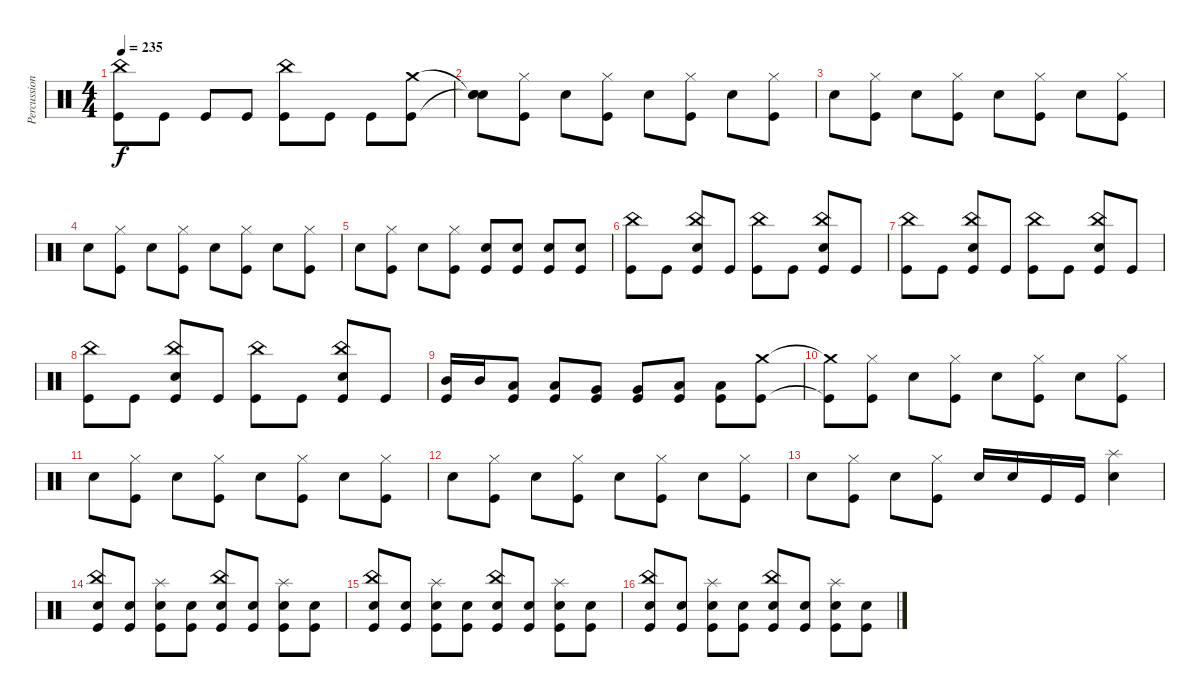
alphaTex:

\track ("Percussion" "Percussion") {instrument percussion}
\staff {score}
\articulation defaults
\ts (4 4)
\tempo 235
\clef neutral
\ks c
("Kick (hit)" "China (hit)").8{dy f} "Kick (hit)".8 "Kick (hit)".8 "Kick (hit)".8 ("Kick (hit)" "China (hit)").8 "Kick (hit)".8 "Kick (hit)".8 ("Kick (hit)" "Crash medium (hit)").8 |
("Snare (hit)"{t} "Snare (hit)"{t} "Snare (hit)").8 ("Kick (hit)" "Hi-Hat (closed)").8 "Snare (hit) 2".8 ("Kick (hit)" "Hi-Hat (closed)").8 "Snare (hit) 2".8 ("Kick (hit)" "Hi-Hat (closed)").8 "Snare (hit) 2".8 ("Kick (hit)" "Hi-Hat (closed)").8 |
"Snare (hit) 2".8 ("Kick (hit)" "Hi-Hat (closed)").8 "Snare (hit) 2".8 ("Kick (hit)" "Hi-Hat (closed)").8 "Snare (hit) 2".8 ("Kick (hit)" "Hi-Hat (closed)").8 "Snare (hit) 2".8 ("Kick (hit)" "Hi-Hat (closed)").8 |
"Snare (hit) 2".8 ("Kick (hit)" "Hi-Hat (closed)").8 "Snare (hit) 2".8 ("Kick (hit)" "Hi-Hat (closed)").8 "Snare (hit) 2".8 ("Kick (hit)" "Hi-Hat (closed)").8 "Snare (hit) 2".8 ("Kick (hit)" "Hi-Hat (closed)").8 |
"Snare (hit) 2".8 ("Kick (hit)" "Hi-Hat (closed)").8 "Snare (hit) 2".8 ("Kick (hit)" "Hi-Hat (closed)").8 ("Kick (hit)" "Snare (hit) 2").8 ("Kick (hit)" "Snare (hit) 2").8 ("Kick (hit)" "Snare (hit) 2").8 ("Kick (hit)" "Snare (hit) 2").8 |
("Kick (hit)" "China (hit)").8 "Kick (hit)".8 ("Kick (hit)" "Snare (hit) 2" "China (hit)").8 "Kick (hit)".8 ("Kick (hit)" "China (hit)").8 "Kick (hit)".8 ("Kick (hit)" "Snare (hit) 2" "China (hit)").8 "Kick (hit)".8 |
("Kick (hit)" "China (hit)").8 "Kick (hit)".8 ("Kick (hit)" "Snare (hit) 2" "China (hit)").8 "Kick (hit)".8 ("Kick (hit)" "China (hit)").8 "Kick (hit)".8 ("Kick (hit)" "Snare (hit) 2" "China (hit)").8 "Kick (hit)".8 |
("Kick (hit)" "China (hit)").8 "Kick (hit)".8 ("Kick (hit)" "Snare (hit) 2" "China (hit)").8 "Kick (hit)".8 ("Kick (hit)" "China (hit)").8 "Kick (hit)".8 ("Kick (hit)" "Snare (hit) 2" "China (hit)").8 "Kick (hit)".8 |
("Mid Tom (hit)" "Kick (hit)").16 "Mid Tom (hit)".16 ("Low Tom (hit)" "Kick (hit)").8 ("Low Tom (hit)" "Kick (hit)").8 ("Very Low Tom (hit)" "Kick (hit)").8 ("Very Low Tom (hit)" "Kick (hit)").8 ("Low Floor Tom (hit)" "Kick (hit)").8 ("Low Floor Tom (hit)" "Kick (hit)").8 ("Crash medium (hit)" "Kick (hit)").8 |
("Crash medium (hit)"{t} "Kick (hit)"{t}).8 ("Kick (hit)" "Hi-Hat (closed)").8 "Snare (hit) 2".8 ("Kick (hit)" "Hi-Hat (closed)").8 "Snare (hit) 2".8 ("Kick (hit)" "Hi-Hat (closed)").8 "Snare (hit) 2".8 ("Kick (hit)" "Hi-Hat (closed)").8 |
"Snare (hit) 2".8 ("Kick (hit)" "Hi-Hat (closed)").8 "Snare (hit) 2".8 ("Kick (hit)" "Hi-Hat (closed)").8 "Snare (hit) 2".8 ("Kick (hit)" "Hi-Hat (closed)").8 "Snare (hit) 2".8 ("Kick (hit)" "Hi-Hat (closed)").8 |
"Snare (hit) 2".8 ("Kick (hit)" "Hi-Hat (closed)").8 "Snare (hit) 2".8 ("Kick (hit)" "Hi-Hat (closed)").8 "Snare (hit) 2".8 ("Kick (hit)" "Hi-Hat (closed)").8 "Snare (hit) 2".8 ("Kick (hit)" "Hi-Hat (closed)").8 |
"Snare (hit) 2".8 ("Kick (hit)" "Hi-Hat (closed)").8 "Snare (hit) 2".8 ("Kick (hit)" "Hi-Hat (closed)").8 "Snare (hit) 2".16 "Snare (hit) 2".16 "Kick (hit)".16 "Kick (hit)".16 ("Snare (hit) 2" "Splash (hit)").4 |
("Kick (hit)" "Snare (hit) 2" "China (hit)").8 ("Kick (hit)" "Snare (hit) 2").8 ("Kick (hit)" "Snare (hit) 2" "Splash (hit)").8 ("Kick (hit)" "Snare (hit) 2").8 ("Kick (hit)" "Snare (hit) 2" "China (hit)").8 ("Kick (hit)" "Snare (hit) 2").8 ("Kick (hit)" "Snare (hit) 2" "Splash (hit)").8 ("Kick (hit)" "Snare (hit) 2").8 |
("Kick (hit)" "Snare (hit) 2" "China (hit)").8 ("Kick (hit)" "Snare (hit) 2").8 ("Kick (hit)" "Snare (hit) 2" "Splash (hit)").8 ("Kick (hit)" "Snare (hit) 2").8 ("Kick (hit)" "Snare (hit) 2" "China (hit)").8 ("Kick (hit)" "Snare (hit) 2").8 ("Kick (hit)" "Snare (hit) 2" "Splash (hit)").8 ("Kick (hit)" "Snare (hit) 2").8 |
("Kick (hit)" "Snare (hit) 2" "China (hit)").8 ("Kick (hit)" "Snare (hit) 2").8 ("Kick (hit)" "Snare (hit) 2" "Splash (hit)").8 ("Kick (hit)" "Snare (hit) 2").8 ("Kick (hit)" "Snare (hit) 2" "China (hit)").8 ("Kick (hit)" "Snare (hit) 2").8 ("Kick (hit)" "Snare (hit) 2" "Splash (hit)").8 ("Kick (hit)" "Snare (hit) 2").8
